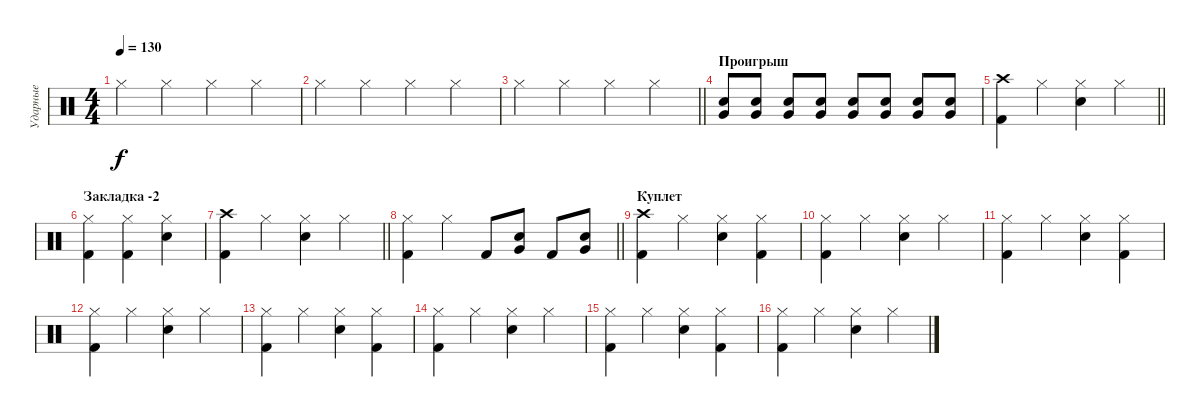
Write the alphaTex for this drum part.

\track ("Ударные" "Ударные") {instrument percussion}
\staff {score}
\articulation defaults
\ts (4 4)
\tempo 130
\clef neutral
\ks c "Hi-Hat (closed)".2{dy f} "Hi-Hat (closed)".2 "Hi-Hat (closed)".2 "Hi-Hat (closed)".2
|
"Hi-Hat (closed)".2 "Hi-Hat (closed)".2 "Hi-Hat (closed)".2 "Hi-Hat (closed)".2 |
\barLineRight lightlight "Hi-Hat (closed)".2 "Hi-Hat (closed)".2 "Hi-Hat (closed)".2 "Hi-Hat (closed)".2
|
\section ("" "Проигрыш")
("Very Low Tom (hit)" "Snare (hit) 2").8 ("Very Low Tom (hit)" "Snare (hit) 2").8 ("Very Low Tom (hit)" "Snare (hit) 2").8 ("Very Low Tom (hit)" "Snare (hit) 2").8 ("Very Low Tom (hit)" "Snare (hit) 2").8 ("Very Low Tom (hit)" "Snare (hit) 2").8 ("Very Low Tom (hit)" "Snare (hit) 2").8 ("Very Low Tom (hit)" "Snare (hit) 2").8 |
\barLineRight lightlight
("Crash high (hit)" "Kick (hit) 2").4 "Hi-Hat (closed)".4 ("Hi-Hat (closed)" "Snare (hit) 2").4 "Hi-Hat (closed)".4 |
\section ("" "Закладка -2")
("Hi-Hat (closed)" "Kick (hit) 2").4 ("Hi-Hat (closed)" "Kick (hit) 2").4 ("Hi-Hat (closed)" "Snare (hit) 2").4 |
\barLineRight lightlight
("Crash high (hit)" "Kick (hit) 2").4 "Hi-Hat (closed)".4 ("Hi-Hat (closed)" "Snare (hit) 2").4 "Hi-Hat (closed)".4 |
\barLineRight lightlight
("Hi-Hat (closed)" "Kick (hit) 2").4 "Hi-Hat (closed)".4 "Kick (hit) 2".8 ("Very Low Tom (hit)" "Snare (hit) 2").8 "Kick (hit) 2".8 ("Very Low Tom (hit)" "Snare (hit) 2").8 |
\section ("" "Куплет")
("Crash high (hit)" "Kick (hit) 2").4 "Hi-Hat (closed)".4 ("Hi-Hat (closed)" "Snare (hit) 2").4 ("Hi-Hat (closed)" "Kick (hit) 2").4 |
("Hi-Hat (closed)" "Kick (hit) 2").4 "Hi-Hat (closed)".4 ("Hi-Hat (closed)" "Snare (hit) 2").4 "Hi-Hat (closed)".4 |
("Hi-Hat (closed)" "Kick (hit) 2").4 "Hi-Hat (closed)".4 ("Hi-Hat (closed)" "Snare (hit) 2").4 ("Hi-Hat (closed)" "Kick (hit) 2").4 |
("Hi-Hat (closed)" "Kick (hit) 2").4 "Hi-Hat (closed)".4 ("Hi-Hat (closed)" "Snare (hit) 2").4 "Hi-Hat (closed)".4 |
("Hi-Hat (closed)" "Kick (hit) 2").4 "Hi-Hat (closed)".4 ("Hi-Hat (closed)" "Snare (hit) 2").4 ("Hi-Hat (closed)" "Kick (hit) 2").4 |
("Hi-Hat (closed)" "Kick (hit) 2").4 "Hi-Hat (closed)".4 ("Hi-Hat (closed)" "Snare (hit) 2").4 "Hi-Hat (closed)".4 |
("Hi-Hat (closed)" "Kick (hit) 2").4 "Hi-Hat (closed)".4 ("Hi-Hat (closed)" "Snare (hit) 2").4 ("Hi-Hat (closed)" "Kick (hit) 2").4 |
("Hi-Hat (closed)" "Kick (hit) 2").4 "Hi-Hat (closed)".4 ("Hi-Hat (closed)" "Snare (hit) 2").4 "Hi-Hat (closed)".4
